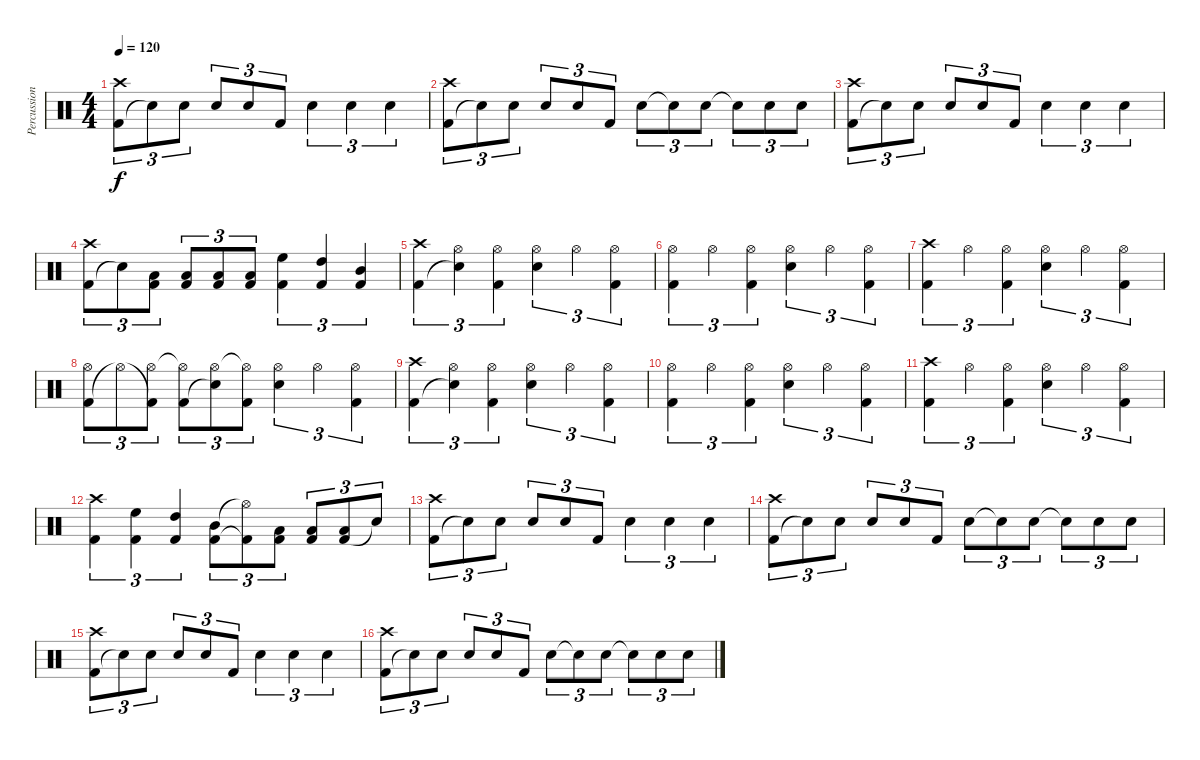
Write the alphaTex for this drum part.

\track ("Percussions" "Percussion") {instrument percussion}
\staff {score}
\articulation defaults
\ts (4 4)
\tempo 120
\clef neutral
\ks c
("Kick (hit) 2" "Crash high (hit)").8{tu (3 2) dy f} "Snare (hit) 2"{t}.8{tu (3 2)} "Snare (hit) 2".8{tu (3 2)} "Snare (hit) 2".8{tu (3 2)} "Snare (hit) 2".8{tu (3 2)} "Kick (hit) 2".8{tu (3 2)} "Snare (hit) 2".4{tu (3 2)} "Snare (hit) 2".4{tu (3 2)} "Snare (hit) 2".4{tu (3 2)} |
("Kick (hit) 2" "Crash high (hit)").8{tu (3 2)} "Snare (hit) 2"{t}.8{tu (3 2)} "Snare (hit) 2".8{tu (3 2)} "Snare (hit) 2".8{tu (3 2)} "Snare (hit) 2".8{tu (3 2)} "Kick (hit) 2".8{tu (3 2)} "Snare (hit) 2".8{tu (3 2)} "Snare (hit) 2"{t}.8{tu (3 2)} "Snare (hit) 2".8{tu (3 2)} "Snare (hit)"{t}.8{tu (3 2)} "Snare (hit) 2".8{tu (3 2)} "Snare (hit) 2".8{tu (3 2)} |
("Kick (hit) 2" "Crash high (hit)").8{tu (3 2)} "Snare (hit) 2"{t}.8{tu (3 2)} "Snare (hit) 2".8{tu (3 2)} "Snare (hit) 2".8{tu (3 2)} "Snare (hit) 2".8{tu (3 2)} "Kick (hit) 2".8{tu (3 2)} "Snare (hit) 2".4{tu (3 2)} "Snare (hit) 2".4{tu (3 2)} "Snare (hit) 2".4{tu (3 2)} |
("Kick (hit) 2" "Crash high (hit)").8{tu (3 2)} "Snare (hit) 2"{t}.8{tu (3 2)} ("Kick (hit) 2" "Low Tom (hit)").8{tu (3 2)} ("Kick (hit) 2" "Low Tom (hit)").8{tu (3 2)} ("Kick (hit) 2" "Low Tom (hit)").8{tu (3 2)} ("Kick (hit) 2" "Low Tom (hit)").8{tu (3 2)} ("Kick (hit) 2" "High Floor Tom (hit)").4{tu (3 2)} ("Kick (hit) 2" "High Tom (hit)").4{tu (3 2)} ("Kick (hit) 2" "Mid Tom (hit)").4{tu (3 2)} |
("Kick (hit) 2" "Crash high (hit)").4{tu (3 2)} ("Snare (hit)"{t} "Hi-Hat (open)").4{tu (3 2)} ("Kick (hit) 2" "Hi-Hat (open)").4{tu (3 2)} ("Snare (hit) 2" "Hi-Hat (open)").4{tu (3 2)} "Hi-Hat (open)".4{tu (3 2)} ("Kick (hit) 2" "Hi-Hat (open)").4{tu (3 2)} |
("Kick (hit) 2" "Hi-Hat (open)").4{tu (3 2)} "Hi-Hat (open)".4{tu (3 2)} ("Kick (hit) 2" "Hi-Hat (open)").4{tu (3 2)} ("Snare (hit) 2" "Hi-Hat (open)").4{tu (3 2)} "Hi-Hat (open)".4{tu (3 2)} ("Kick (hit) 2" "Hi-Hat (open)").4{tu (3 2)} |
("Kick (hit) 2" "Crash high (hit)").4{tu (3 2)} "Hi-Hat (open)".4{tu (3 2)} ("Kick (hit) 2" "Hi-Hat (open)").4{tu (3 2)} ("Snare (hit) 2" "Hi-Hat (open)").4{tu (3 2)} "Hi-Hat (open)".4{tu (3 2)} ("Kick (hit) 2" "Hi-Hat (open)").4{tu (3 2)} |
("Kick (hit) 2" "Hi-Hat (open)").8{tu (3 2)} "Hi-Hat (open)"{t}.8{tu (3 2)} ("Kick (hit) 2"{t} "Hi-Hat (open)").8{tu (3 2)} ("Kick (hit) 2" "Hi-Hat (open)"{t}).8{tu (3 2)} ("Snare (hit)"{t} "Hi-Hat (open)").8{tu (3 2)} ("Kick (hit) 2" "Hi-Hat (open)"{t}).8{tu (3 2)} ("Snare (hit) 2" "Hi-Hat (open)").4{tu (3 2)} "Hi-Hat (open)".4{tu (3 2)} ("Kick (hit) 2" "Hi-Hat (open)").4{tu (3 2)} |
("Kick (hit) 2" "Crash high (hit)").4{tu (3 2)} ("Snare (hit)"{t} "Hi-Hat (open)").4{tu (3 2)} ("Kick (hit) 2" "Hi-Hat (open)").4{tu (3 2)} ("Snare (hit) 2" "Hi-Hat (open)").4{tu (3 2)} "Hi-Hat (open)".4{tu (3 2)} ("Kick (hit) 2" "Hi-Hat (open)").4{tu (3 2)} |
("Kick (hit) 2" "Hi-Hat (open)").4{tu (3 2)} "Hi-Hat (open)".4{tu (3 2)} ("Kick (hit) 2" "Hi-Hat (open)").4{tu (3 2)} ("Snare (hit) 2" "Hi-Hat (open)").4{tu (3 2)} "Hi-Hat (open)".4{tu (3 2)} ("Kick (hit) 2" "Hi-Hat (open)").4{tu (3 2)} |
("Kick (hit) 2" "Crash high (hit)").4{tu (3 2)} "Hi-Hat (open)".4{tu (3 2)} ("Kick (hit) 2" "Hi-Hat (open)").4{tu (3 2)} ("Snare (hit) 2" "Hi-Hat (open)").4{tu (3 2)} "Hi-Hat (open)".4{tu (3 2)} ("Kick (hit) 2" "Hi-Hat (open)").4{tu (3 2)} |
("Kick (hit) 2" "Crash high (hit)").4{tu (3 2)} ("Kick (hit) 2" "High Floor Tom (hit)").4{tu (3 2)} ("Kick (hit) 2" "High Tom (hit)").4{tu (3 2)} ("Kick (hit) 2" "Mid Tom (hit)").8{tu (3 2)} ("Kick (hit) 2"{t} "Hi-Hat (open)"{t}).8{tu (3 2)} ("Kick (hit) 2" "Low Tom (hit)").8{tu (3 2)} ("Kick (hit) 2" "Low Tom (hit)").8{tu (3 2)} ("Kick (hit) 2" "Low Tom (hit)").8{tu (3 2)} "Snare (hit)"{t}.8{tu (3 2)} |
("Kick (hit) 2" "Crash high (hit)").8{tu (3 2)} "Snare (hit) 2"{t}.8{tu (3 2)} "Snare (hit) 2".8{tu (3 2)} "Snare (hit) 2".8{tu (3 2)} "Snare (hit) 2".8{tu (3 2)} "Kick (hit) 2".8{tu (3 2)} "Snare (hit) 2".4{tu (3 2)} "Snare (hit) 2".4{tu (3 2)} "Snare (hit) 2".4{tu (3 2)} |
("Kick (hit) 2" "Crash high (hit)").8{tu (3 2)} "Snare (hit) 2"{t}.8{tu (3 2)} "Snare (hit) 2".8{tu (3 2)} "Snare (hit) 2".8{tu (3 2)} "Snare (hit) 2".8{tu (3 2)} "Kick (hit) 2".8{tu (3 2)} "Snare (hit) 2".8{tu (3 2)} "Snare (hit) 2"{t}.8{tu (3 2)} "Snare (hit) 2".8{tu (3 2)} "Snare (hit)"{t}.8{tu (3 2)} "Snare (hit) 2".8{tu (3 2)} "Snare (hit) 2".8{tu (3 2)} |
("Kick (hit) 2" "Crash high (hit)").8{tu (3 2)} "Snare (hit) 2"{t}.8{tu (3 2)} "Snare (hit) 2".8{tu (3 2)} "Snare (hit) 2".8{tu (3 2)} "Snare (hit) 2".8{tu (3 2)} "Kick (hit) 2".8{tu (3 2)} "Snare (hit) 2".4{tu (3 2)} "Snare (hit) 2".4{tu (3 2)} "Snare (hit) 2".4{tu (3 2)} |
("Kick (hit) 2" "Crash high (hit)").8{tu (3 2)} "Snare (hit) 2"{t}.8{tu (3 2)} "Snare (hit) 2".8{tu (3 2)} "Snare (hit) 2".8{tu (3 2)} "Snare (hit) 2".8{tu (3 2)} "Kick (hit) 2".8{tu (3 2)} "Snare (hit) 2".8{tu (3 2)} "Snare (hit) 2"{t}.8{tu (3 2)} "Snare (hit) 2".8{tu (3 2)} "Snare (hit)"{t}.8{tu (3 2)} "Snare (hit) 2".8{tu (3 2)} "Snare (hit) 2".8{tu (3 2)}
